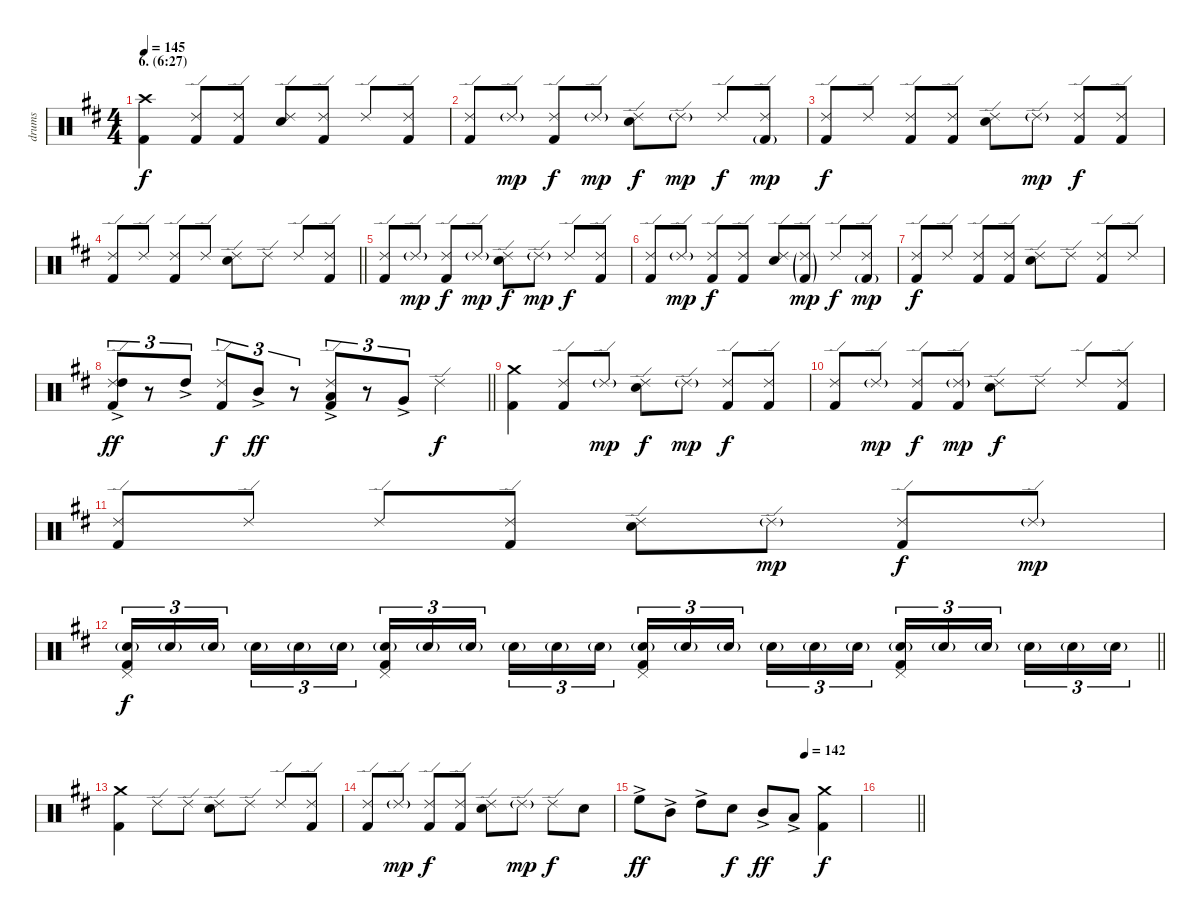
\track ("drums" "drums") {instrument percussion}
\staff {score}
\articulation defaults
\ts (4 4)
\section ("" "6. (6:27)")
\tempo 145
\clef neutral
\ks d
("Crash high (hit)" "Kick (hit) 2").4{dy f} ("Ride (edge) 2" "Kick (hit) 2").8 ("Ride (edge) 2" "Kick (hit) 2").8 ("Ride (edge) 2" "Electric Snare (hit)").8 ("Ride (edge) 2" "Kick (hit) 2").8 "Ride (edge) 2".8 ("Ride (edge) 2" "Kick (hit) 2").8 |
("Ride (edge) 2" "Kick (hit) 2").8 "Ride (edge) 2"{g}.8{dy mp} ("Ride (edge) 2" "Kick (hit) 2").8{dy f} "Ride (edge) 2"{g}.8{dy mp} ("Ride (edge) 2" "Electric Snare (hit)").8{dy f} "Ride (edge) 2"{g}.8{dy mp} "Ride (edge) 2".8{dy f} ("Ride (edge) 2" "Kick (hit) 2"{g}).8{dy mp} |
("Ride (edge) 2" "Kick (hit) 2").8{dy f} "Ride (edge) 2".8 ("Ride (edge) 2" "Kick (hit) 2").8 ("Ride (edge) 2" "Kick (hit) 2").8 ("Ride (edge) 2" "Electric Snare (hit)").8 "Ride (edge) 2"{g}.8{dy mp} ("Ride (edge) 2" "Kick (hit) 2").8{dy f} ("Ride (edge) 2" "Kick (hit) 2").8 |
\barLineRight lightlight
("Ride (edge) 2" "Kick (hit) 2").8 "Ride (edge) 2".8 ("Ride (edge) 2" "Kick (hit) 2").8 "Ride (edge) 2".8 ("Ride (edge) 2" "Electric Snare (hit)").8 "Ride (edge) 2".8 "Ride (edge) 2".8 ("Ride (edge) 2" "Kick (hit) 2").8 |
("Ride (edge) 2" "Kick (hit) 2").8 "Ride (edge) 2"{g}.8{dy mp} ("Ride (edge) 2" "Kick (hit) 2").8{dy f} "Ride (edge) 2"{g}.8{dy mp} ("Ride (edge) 2" "Electric Snare (hit)").8{dy f} "Ride (edge) 2"{g}.8{dy mp} "Ride (edge) 2".8{dy f} ("Ride (edge) 2" "Kick (hit) 2").8 |
("Ride (edge) 2" "Kick (hit) 2").8 "Ride (edge) 2"{g}.8{dy mp} ("Ride (edge) 2" "Kick (hit) 2").8{dy f} ("Ride (edge) 2" "Kick (hit) 2").8 ("Ride (edge) 2" "Electric Snare (hit)").8 ("Ride (edge) 2"{g} "Kick (hit) 2"{g}).8{dy mp} "Ride (edge) 2".8{dy f} ("Ride (edge) 2" "Kick (hit) 2"{g}).8{dy mp} |
("Ride (edge) 2" "Kick (hit) 2").8{dy f} "Ride (edge) 2".8 ("Ride (edge) 2" "Kick (hit) 2").8 ("Ride (edge) 2" "Kick (hit) 2").8 ("Ride (edge) 2" "Electric Snare (hit)").8 "Ride (edge) 2".8 ("Ride (edge) 2" "Kick (hit) 2").8 "Ride (edge) 2".8 |
\barLineRight lightlight
("Ride (edge) 2" "High Tom (hit)"{ac} "Kick (hit) 2").8{tu (3 2) dy ff} r.8{tu (3 2)} "High Tom (hit)"{ac}.8{tu (3 2)} ("Ride (edge) 2" "Kick (hit) 2").8{tu (3 2) dy f} "Mid Tom (hit)"{ac}.8{tu (3 2) dy ff} r.8{tu (3 2)} ("Ride (edge) 2" "Low Tom (hit)"{ac} "Kick (hit) 2").8{tu (3 2)} r.8{tu (3 2)} "Very Low Tom (hit)"{ac}.8{tu (3 2)} "Ride (edge) 2".4{dy f} |
("Crash medium (hit)" "Kick (hit) 2").4 ("Ride (edge) 2" "Kick (hit) 2").8 "Ride (edge) 2"{g}.8{dy mp} ("Ride (edge) 2" "Electric Snare (hit)").8{dy f} "Ride (edge) 2"{g}.8{dy mp} ("Ride (edge) 2" "Kick (hit) 2").8{dy f} ("Ride (edge) 2" "Kick (hit) 2").8 |
("Ride (edge) 2" "Kick (hit) 2").8 "Ride (edge) 2"{g}.8{dy mp} ("Ride (edge) 2" "Kick (hit) 2").8{dy f} ("Ride (edge) 2"{g} "Kick (hit) 2").8{dy mp} ("Ride (edge) 2" "Electric Snare (hit)").8{dy f} "Ride (edge) 2".8 "Ride (edge) 2".8 ("Ride (edge) 2" "Kick (hit) 2").8 |
("Ride (edge) 2" "Kick (hit) 2").8 "Ride (edge) 2".8 "Ride (edge) 2".8 ("Ride (edge) 2" "Kick (hit) 2").8 ("Ride (edge) 2" "Electric Snare (hit)").8 "Ride (edge) 2"{g}.8{dy mp} ("Ride (edge) 2" "Kick (hit) 2").8{dy f} "Ride (edge) 2"{g}.8{dy mp} |
\barLineRight lightlight
("Pedal Hi-Hat (hit)" "Electric Snare (hit)"{g} "Kick (hit) 2").16{tu (3 2) dy f} "Electric Snare (hit)"{g}.16{tu (3 2)} "Electric Snare (hit)"{g}.16{tu (3 2) beam splitsecondary} "Electric Snare (hit)"{g}.16{tu (3 2)} "Electric Snare (hit)"{g}.16{tu (3 2)} "Electric Snare (hit)"{g}.16{tu (3 2)} ("Pedal Hi-Hat (hit)" "Electric Snare (hit)"{g} "Kick (hit) 2").16{tu (3 2)} "Electric Snare (hit)"{g}.16{tu (3 2)} "Electric Snare (hit)"{g}.16{tu (3 2) beam splitsecondary} "Electric Snare (hit)"{g}.16{tu (3 2)} "Electric Snare (hit)"{g}.16{tu (3 2)} "Electric Snare (hit)"{g}.16{tu (3 2)} ("Pedal Hi-Hat (hit)" "Electric Snare (hit)"{g} "Kick (hit) 2").16{tu (3 2)} "Electric Snare (hit)"{g}.16{tu (3 2)} "Electric Snare (hit)"{g}.16{tu (3 2) beam splitsecondary} "Electric Snare (hit)"{g}.16{tu (3 2)} "Electric Snare (hit)"{g}.16{tu (3 2)} "Electric Snare (hit)"{g}.16{tu (3 2)} ("Pedal Hi-Hat (hit)" "Electric Snare (hit)"{g} "Kick (hit) 2").16{tu (3 2)} "Electric Snare (hit)"{g}.16{tu (3 2)} "Electric Snare (hit)"{g}.16{tu (3 2) beam splitsecondary} "Electric Snare (hit)"{g}.16{tu (3 2)} "Electric Snare (hit)"{g}.16{tu (3 2)} "Electric Snare (hit)"{g}.16{tu (3 2)} |
("Crash medium (hit)" "Kick (hit) 2").4 "Ride (edge) 2".8 "Ride (edge) 2".8 ("Ride (edge) 2" "Electric Snare (hit)").8 "Ride (edge) 2".8 "Ride (edge) 2".8 ("Ride (edge) 2" "Kick (hit) 2").8 |
("Ride (edge) 2" "Kick (hit) 2").8 "Ride (edge) 2"{g}.8{dy mp} ("Ride (edge) 2" "Kick (hit) 2").8{dy f} ("Ride (edge) 2" "Kick (hit) 2").8 ("Ride (edge) 2" "Electric Snare (hit)").8 "Ride (edge) 2"{g}.8{dy mp} "Ride (edge) 2".8{dy f} "Electric Snare (hit)".8 |
\tempo (142 0.75)
"High Floor Tom (hit)"{ac}.8{dy ff} "Mid Tom (hit)"{ac}.8 "High Tom (hit)"{ac}.8 "Electric Snare (hit)".8{dy f} "Mid Tom (hit)"{ac}.8{dy ff} "Low Tom (hit)"{ac}.8 ("Crash medium (hit)" "Kick (hit) 2").4{dy f} |
\barLineRight lightlight
